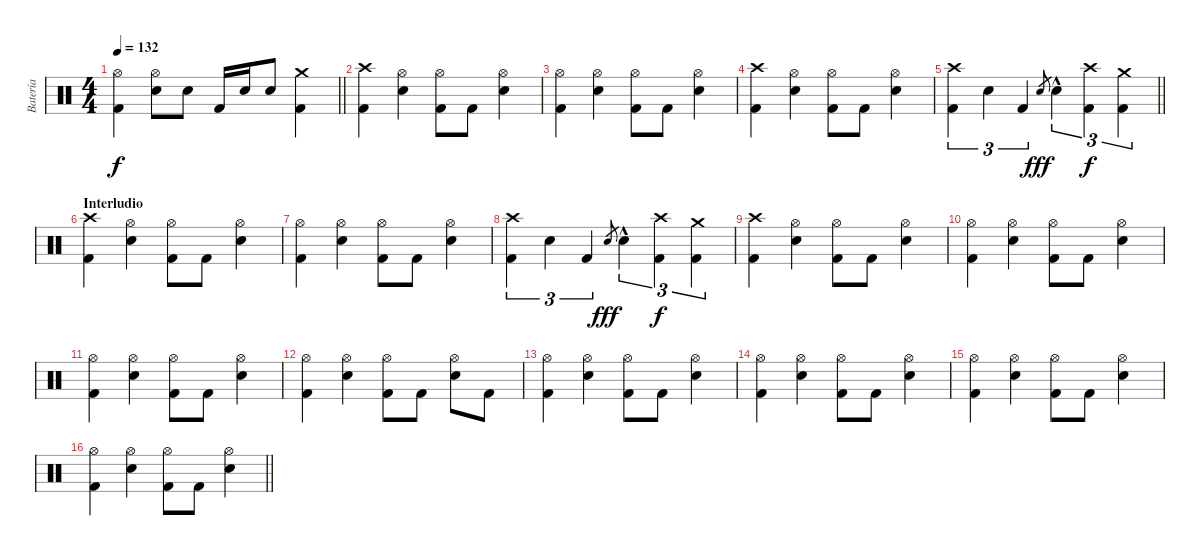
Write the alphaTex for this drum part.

\track ("Batería" "Batería") {instrument percussion}
\staff {score}
\articulation defaults
\ts (4 4)
\tempo 132
\clef neutral
\barLineRight lightlight
\ks c
("Hi-Hat (open)" "Kick (hit) 2").4{dy f} ("Hi-Hat (open)" "Electric Snare (hit)").8 "Electric Snare (hit)".8 "Kick (hit) 2".16 "Electric Snare (hit)".16 "Electric Snare (hit)".8 ("Kick (hit) 2" "Crash medium (hit)").4 |
("Crash high (hit)" "Kick (hit) 2").4 ("Hi-Hat (open)" "Electric Snare (hit)").4 ("Kick (hit) 2" "Hi-Hat (open)").8 "Kick (hit) 2".8 ("Hi-Hat (open)" "Electric Snare (hit)").4 |
("Hi-Hat (open)" "Kick (hit) 2").4 ("Hi-Hat (open)" "Electric Snare (hit)").4 ("Kick (hit) 2" "Hi-Hat (open)").8 "Kick (hit) 2".8 ("Hi-Hat (open)" "Electric Snare (hit)").4 |
("Crash high (hit)" "Kick (hit) 2").4 ("Hi-Hat (open)" "Electric Snare (hit)").4 ("Kick (hit) 2" "Hi-Hat (open)").8 "Kick (hit) 2".8 ("Hi-Hat (open)" "Electric Snare (hit)").4 |
\barLineRight lightlight
("Crash high (hit)" "Kick (hit) 2").4{tu (3 2)} "Electric Snare (hit)".4{tu (3 2)} "Kick (hit) 2".4{tu (3 2)} "Electric Snare (hit)".8{gr dy fff} "Electric Snare (hit)"{hac}.4{tu (3 2)} ("Kick (hit) 2" "Crash high (hit)").4{tu (3 2) dy f} ("Kick (hit) 2" "Crash medium (hit)").4{tu (3 2)} |
\section ("" "Interludio")
("Crash high (hit)" "Kick (hit) 2").4 ("Hi-Hat (open)" "Electric Snare (hit)").4 ("Kick (hit) 2" "Hi-Hat (open)").8 "Kick (hit) 2".8 ("Hi-Hat (open)" "Electric Snare (hit)").4 |
("Hi-Hat (open)" "Kick (hit) 2").4 ("Hi-Hat (open)" "Electric Snare (hit)").4 ("Kick (hit) 2" "Hi-Hat (open)").8 "Kick (hit) 2".8 ("Hi-Hat (open)" "Electric Snare (hit)").4 |
("Crash high (hit)" "Kick (hit) 2").4{tu (3 2)} "Electric Snare (hit)".4{tu (3 2)} "Kick (hit) 2".4{tu (3 2)} "Electric Snare (hit)".8{gr dy fff} "Electric Snare (hit)"{hac}.4{tu (3 2)} ("Kick (hit) 2" "Crash high (hit)").4{tu (3 2) dy f} ("Kick (hit) 2" "Crash medium (hit)").4{tu (3 2)} |
("Crash high (hit)" "Kick (hit) 2").4 ("Hi-Hat (open)" "Electric Snare (hit)").4 ("Kick (hit) 2" "Hi-Hat (open)").8 "Kick (hit) 2".8 ("Hi-Hat (open)" "Electric Snare (hit)").4 |
("Hi-Hat (open)" "Kick (hit) 2").4 ("Hi-Hat (open)" "Electric Snare (hit)").4 ("Kick (hit) 2" "Hi-Hat (open)").8 "Kick (hit) 2".8 ("Hi-Hat (open)" "Electric Snare (hit)").4 |
("Hi-Hat (open)" "Kick (hit) 2").4 ("Hi-Hat (open)" "Electric Snare (hit)").4 ("Kick (hit) 2" "Hi-Hat (open)").8 "Kick (hit) 2".8 ("Hi-Hat (open)" "Electric Snare (hit)").4 |
("Hi-Hat (open)" "Kick (hit) 2").4 ("Hi-Hat (open)" "Electric Snare (hit)").4 ("Kick (hit) 2" "Hi-Hat (open)").8 "Kick (hit) 2".8 ("Hi-Hat (open)" "Electric Snare (hit)").8 "Kick (hit) 2".8 |
("Hi-Hat (open)" "Kick (hit) 2").4 ("Hi-Hat (open)" "Electric Snare (hit)").4 ("Kick (hit) 2" "Hi-Hat (open)").8 "Kick (hit) 2".8 ("Hi-Hat (open)" "Electric Snare (hit)").4 |
("Hi-Hat (open)" "Kick (hit) 2").4 ("Hi-Hat (open)" "Electric Snare (hit)").4 ("Kick (hit) 2" "Hi-Hat (open)").8 "Kick (hit) 2".8 ("Hi-Hat (open)" "Electric Snare (hit)").4 |
("Hi-Hat (open)" "Kick (hit) 2").4 ("Hi-Hat (open)" "Electric Snare (hit)").4 ("Kick (hit) 2" "Hi-Hat (open)").8 "Kick (hit) 2".8 ("Hi-Hat (open)" "Electric Snare (hit)").4 |
\barLineRight lightlight
("Hi-Hat (open)" "Kick (hit) 2").4 ("Hi-Hat (open)" "Electric Snare (hit)").4 ("Kick (hit) 2" "Hi-Hat (open)").8 "Kick (hit) 2".8 ("Hi-Hat (open)" "Electric Snare (hit)").4
